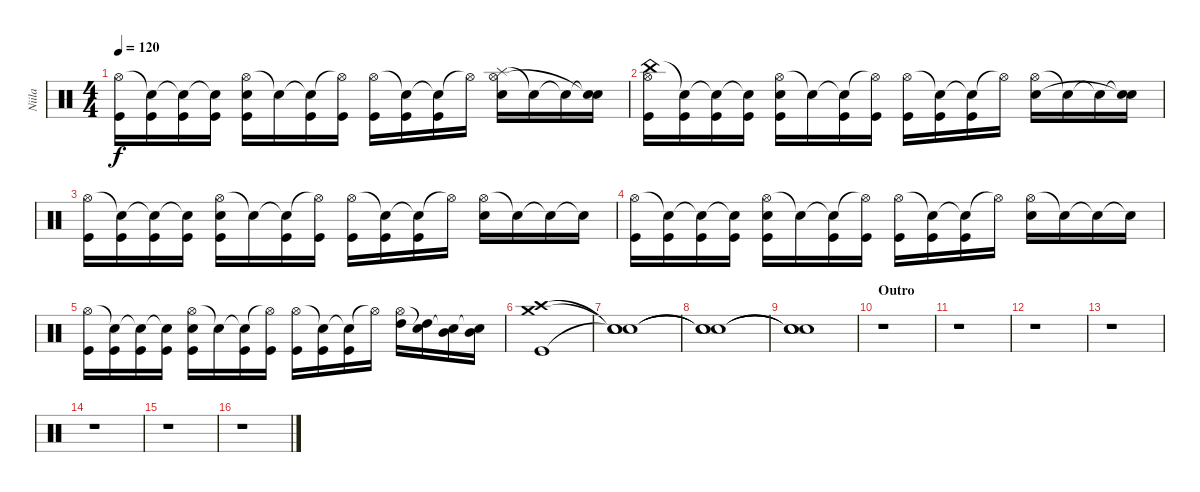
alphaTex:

\track ("Niila" "Niila") {instrument percussion}
\staff {score}
\articulation defaults
\ts (4 4)
\tempo 120
\clef neutral
\ks c
("Hi-Hat (open)" "Kick (hit)").16{dy f} ("Snare (hit)"{t} "Kick (hit)").16 ("Snare (hit)"{t} "Kick (hit)").16 ("Snare (hit)"{t} "Kick (hit)").16 ("Hi-Hat (open)" "Snare (hit) 2" "Kick (hit)").16 "Snare (hit)"{t}.16 ("Snare (hit)"{t} "Kick (hit)").16 ("Hi-Hat (open)"{t} "Kick (hit)").16 ("Hi-Hat (open)" "Kick (hit)").16 ("Snare (hit)"{t} "Kick (hit)").16 ("Snare (hit)"{t} "Kick (hit)").16 "Hi-Hat (open)"{t}.16 ("Splash (hit)" "Hi-Hat (open)" "Snare (hit) 2").16 "Snare (hit)"{t}.16 "Snare (hit)"{t}.16 ("Snare (hit)"{t} "Snare (hit)"{t}).16 |
("China (hit)" "Hi-Hat (open)" "Kick (hit)").16 ("Snare (hit)"{t} "Kick (hit)").16 ("Snare (hit)"{t} "Kick (hit)").16 ("Snare (hit)"{t} "Kick (hit)").16 ("Hi-Hat (open)" "Snare (hit) 2" "Kick (hit)").16 "Snare (hit)"{t}.16 ("Snare (hit)"{t} "Kick (hit)").16 ("Hi-Hat (open)"{t} "Kick (hit)").16 ("Hi-Hat (open)" "Kick (hit)").16 ("Snare (hit)"{t} "Kick (hit)").16 ("Snare (hit)"{t} "Kick (hit)").16 "Hi-Hat (open)"{t}.16 ("Hi-Hat (open)" "Snare (hit) 2").16 "Snare (hit)"{t}.16 "Snare (hit)"{t}.16 ("Snare (hit)"{t} "Snare (hit)"{t}).16 |
("Hi-Hat (open)" "Kick (hit)").16 ("Snare (hit)"{t} "Kick (hit)").16 ("Snare (hit)"{t} "Kick (hit)").16 ("Snare (hit)"{t} "Kick (hit)").16 ("Hi-Hat (open)" "Snare (hit) 2" "Kick (hit)").16 "Snare (hit)"{t}.16 ("Snare (hit)"{t} "Kick (hit)").16 ("Hi-Hat (open)"{t} "Kick (hit)").16 ("Hi-Hat (open)" "Kick (hit)").16 ("Snare (hit)"{t} "Kick (hit)").16 ("Snare (hit)"{t} "Kick (hit)").16 "Hi-Hat (open)"{t}.16 ("Hi-Hat (open)" "Snare (hit) 2").16 "Snare (hit)"{t}.16 "Snare (hit)"{t}.16 "Snare (hit)"{t}.16 |
("Hi-Hat (open)" "Kick (hit)").16 ("Snare (hit)"{t} "Kick (hit)").16 ("Snare (hit)"{t} "Kick (hit)").16 ("Snare (hit)"{t} "Kick (hit)").16 ("Hi-Hat (open)" "Snare (hit) 2" "Kick (hit)").16 "Snare (hit)"{t}.16 ("Snare (hit)"{t} "Kick (hit)").16 ("Hi-Hat (open)"{t} "Kick (hit)").16 ("Hi-Hat (open)" "Kick (hit)").16 ("Snare (hit)"{t} "Kick (hit)").16 ("Snare (hit)"{t} "Kick (hit)").16 "Hi-Hat (open)"{t}.16 ("Hi-Hat (open)" "Snare (hit) 2").16 "Snare (hit)"{t}.16 "Snare (hit)"{t}.16 "Snare (hit)"{t}.16 |
("Hi-Hat (open)" "Kick (hit)").16 ("Snare (hit)"{t} "Kick (hit)").16 ("Snare (hit)"{t} "Kick (hit)").16 ("Snare (hit)"{t} "Kick (hit)").16 ("Hi-Hat (open)" "Snare (hit) 2" "Kick (hit)").16 "Snare (hit)"{t}.16 ("Snare (hit)"{t} "Kick (hit)").16 ("Hi-Hat (open)"{t} "Kick (hit)").16 ("Hi-Hat (open)" "Kick (hit)").16 ("Snare (hit)"{t} "Kick (hit)").16 ("Snare (hit)"{t} "Kick (hit)").16 "Hi-Hat (open)"{t}.16 ("Hi-Hat (open)" "High Tom (hit)").16 ("Snare (hit)"{t} "High Tom (hit)").16 ("Snare (hit)"{t} "Mid Tom (hit)").16 ("Snare (hit)"{t} "Mid Tom (hit)").16 |
("Crash medium (hit)" "Crash high (hit)" "Kick (hit)").1 |
("Snare (hit)"{t} "Snare (hit)"{t} "Snare (hit)"{t}).1 |
("Snare (hit)"{t} "Snare (hit)"{t} "Snare (hit)"{t}).1 |
("Snare (hit)"{t} "Snare (hit)"{t} "Snare (hit)"{t}).1 |
\section ("" "Outro")
r.1 |
r.1 |
r.1 |
r.1 |
r.1 |
r.1 |
r.1
